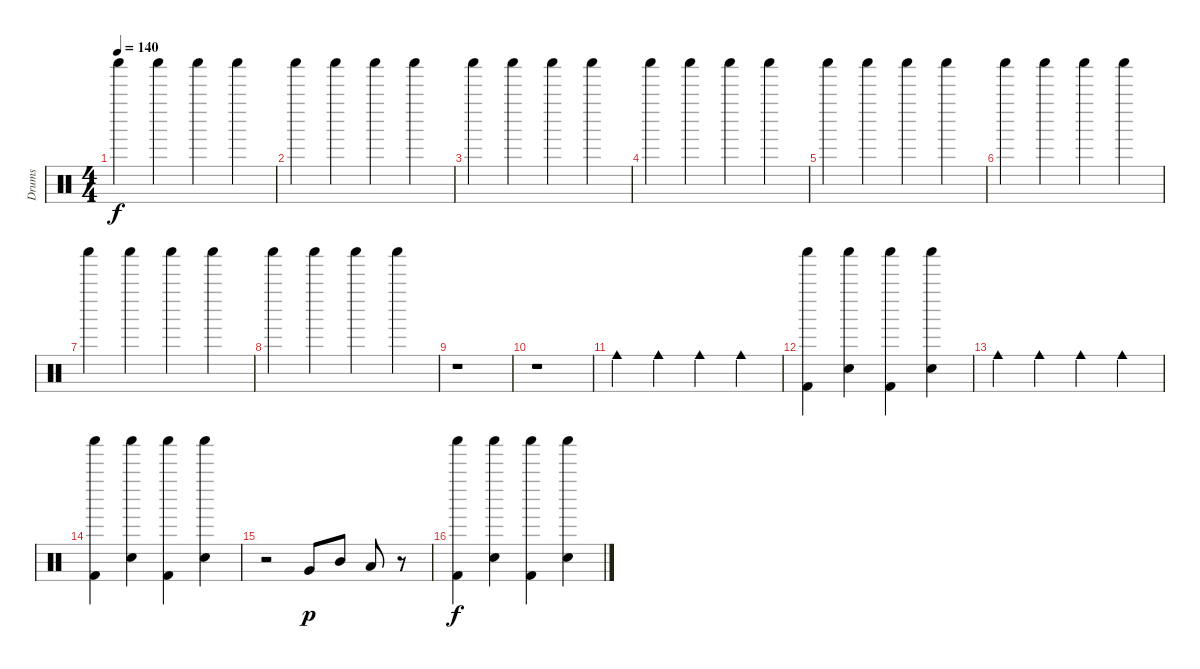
\track ("Drums" "Drums") {instrument percussion}
\staff {score}
\articulation defaults
\ts (4 4)
\tempo 140
\clef neutral
\ks c "Shaker (hit)".4{dy f} "Shaker (hit)".4 "Shaker (hit)".4 "Shaker (hit)".4
|
"Shaker (hit)".4 "Shaker (hit)".4 "Shaker (hit)".4 "Shaker (hit)".4 |
"Shaker (hit)".4 "Shaker (hit)".4 "Shaker (hit)".4 "Shaker (hit)".4 |
"Shaker (hit)".4 "Shaker (hit)".4 "Shaker (hit)".4 "Shaker (hit)".4 |
"Shaker (hit)".4 "Shaker (hit)".4 "Shaker (hit)".4 "Shaker (hit)".4 |
"Shaker (hit)".4 "Shaker (hit)".4 "Shaker (hit)".4 "Shaker (hit)".4 |
"Shaker (hit)".4 "Shaker (hit)".4 "Shaker (hit)".4 "Shaker (hit)".4 |
"Shaker (hit)".4 "Shaker (hit)".4 "Shaker (hit)".4 "Shaker (hit)".4 |
r.1 |
r.1 |
"Cowbell medium (hit)".4 "Cowbell medium (hit)".4 "Cowbell medium (hit)".4 "Cowbell medium (hit)".4 |
("Shaker (hit)" "Kick (hit) 2").4 ("Shaker (hit)" "Snare (hit) 2").4 ("Shaker (hit)" "Kick (hit) 2").4 ("Shaker (hit)" "Snare (hit) 2").4 |
"Cowbell medium (hit)".4 "Cowbell medium (hit)".4 "Cowbell medium (hit)".4 "Cowbell medium (hit)".4 |
("Shaker (hit)" "Kick (hit) 2").4 ("Shaker (hit)" "Snare (hit) 2").4 ("Shaker (hit)" "Kick (hit) 2").4 ("Shaker (hit)" "Snare (hit) 2").4 |
r.2 "Very Low Tom (hit)".8{dy p} "Mid Tom (hit)".8 "Low Tom (hit)".8 r.8 |
("Shaker (hit)" "Kick (hit) 2").4{dy f} ("Shaker (hit)" "Snare (hit) 2").4 ("Shaker (hit)" "Kick (hit) 2").4 ("Shaker (hit)" "Snare (hit) 2").4
